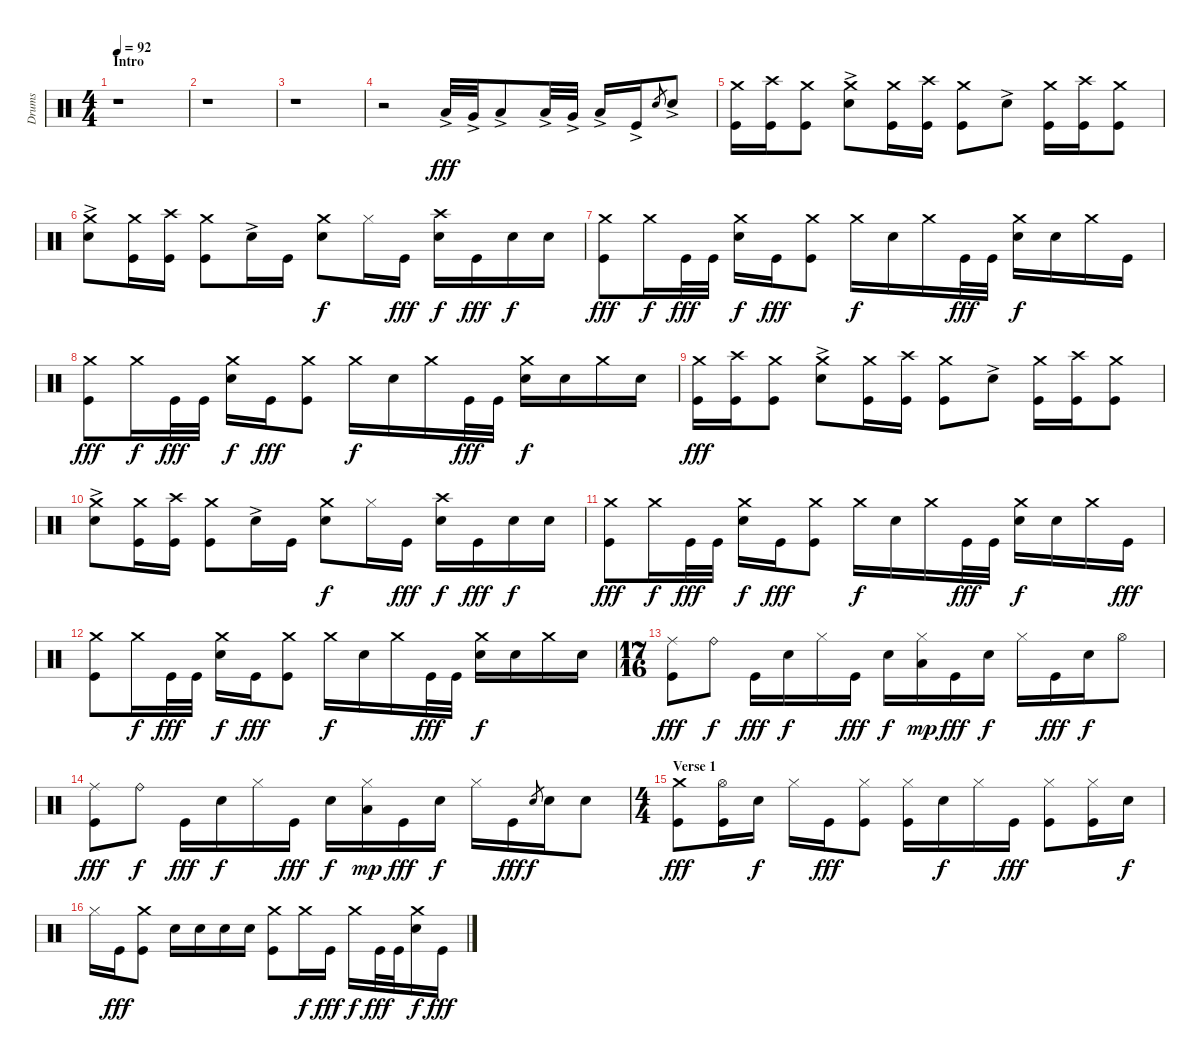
\track ("Drums" "Drums") {instrument percussion}
\staff {score}
\articulation defaults
\ts (4 4)
\section ("" "Intro")
\tempo 92
\clef neutral
\ks c
r.1{dy fff} |
r.1 |
r.1 |
r.2 "Low Tom (hit)"{ac}.32 "Very Low Tom (hit)"{ac}.32 "Low Floor Tom (hit)"{ac}.8 "Low Tom (hit)"{ac}.32 "Very Low Tom (hit)"{ac}.32 "Low Floor Tom (hit)"{ac}.16 "Kick (hit)"{ac}.16 "Snare (hit) 2".8{gr} "Snare (hit) 2"{ac}.8 |
("Crash medium (hit)" "Kick (hit)").16 ("Crash high (hit)" "Kick (hit)").16 ("Crash medium (hit)" "Kick (hit)").8 ("Crash medium (hit)"{ac} "Snare (hit) 2"{ac}).8 ("Crash medium (hit)" "Kick (hit)").16 ("Crash high (hit)" "Kick (hit)").16 ("Crash medium (hit)" "Kick (hit)").8 "Snare (hit) 2"{ac}.8 ("Crash medium (hit)" "Kick (hit)").16 ("Crash high (hit)" "Kick (hit)").16 ("Crash medium (hit)" "Kick (hit)").8 |
("Crash medium (hit)"{ac} "Snare (hit) 2"{ac}).8 ("Crash medium (hit)" "Kick (hit)").16 ("Crash high (hit)" "Kick (hit)").16 ("Crash medium (hit)" "Kick (hit)").8 "Snare (hit) 2"{ac}.16 "Kick (hit)".16 ("Crash medium (hit)" "Snare (hit) 2").8{dy f} "Hi-Hat (closed)".16 "Kick (hit)".16{dy fff} ("Crash high (hit)" "Snare (hit) 2").16{dy f} "Kick (hit)".16{dy fff} "Snare (hit) 2".16{dy f} "Snare (hit) 2".16 |
("Crash medium (hit)" "Kick (hit)").8{dy fff} "Crash medium (hit)".16{dy f} "Kick (hit)".32{dy fff} "Kick (hit)".32 ("Crash medium (hit)" "Snare (hit) 2").16{dy f} "Kick (hit)".16{dy fff} ("Crash medium (hit)" "Kick (hit)").8 "Crash medium (hit)".16{dy f} "Snare (hit) 2".16 "Crash medium (hit)".16 "Kick (hit)".32{dy fff} "Kick (hit)".32 ("Crash medium (hit)" "Snare (hit) 2").16{dy f} "Snare (hit) 2".16 "Crash medium (hit)".16 "Kick (hit)".16 |
("Crash medium (hit)" "Kick (hit)").8{dy fff} "Crash medium (hit)".16{dy f} "Kick (hit)".32{dy fff} "Kick (hit)".32 ("Crash medium (hit)" "Snare (hit) 2").16{dy f} "Kick (hit)".16{dy fff} ("Crash medium (hit)" "Kick (hit)").8 "Crash medium (hit)".16{dy f} "Snare (hit) 2".16 "Crash medium (hit)".16 "Kick (hit)".32{dy fff} "Kick (hit)".32 ("Crash medium (hit)" "Snare (hit) 2").16{dy f} "Snare (hit) 2".16 "Crash medium (hit)".16 "Snare (hit) 2".16 |
("Crash medium (hit)" "Kick (hit)").16{dy fff} ("Crash high (hit)" "Kick (hit)").16 ("Crash medium (hit)" "Kick (hit)").8 ("Crash medium (hit)"{ac} "Snare (hit) 2"{ac}).8 ("Crash medium (hit)" "Kick (hit)").16 ("Crash high (hit)" "Kick (hit)").16 ("Crash medium (hit)" "Kick (hit)").8 "Snare (hit) 2"{ac}.8 ("Crash medium (hit)" "Kick (hit)").16 ("Crash high (hit)" "Kick (hit)").16 ("Crash medium (hit)" "Kick (hit)").8 |
("Crash medium (hit)"{ac} "Snare (hit) 2"{ac}).8 ("Crash medium (hit)" "Kick (hit)").16 ("Crash high (hit)" "Kick (hit)").16 ("Crash medium (hit)" "Kick (hit)").8 "Snare (hit) 2"{ac}.16 "Kick (hit)".16 ("Crash medium (hit)" "Snare (hit) 2").8{dy f} "Hi-Hat (closed)".16 "Kick (hit)".16{dy fff} ("Crash high (hit)" "Snare (hit) 2").16{dy f} "Kick (hit)".16{dy fff} "Snare (hit) 2".16{dy f} "Snare (hit) 2".16 |
("Crash medium (hit)" "Kick (hit)").8{dy fff} "Crash medium (hit)".16{dy f} "Kick (hit)".32{dy fff} "Kick (hit)".32 ("Crash medium (hit)" "Snare (hit) 2").16{dy f} "Kick (hit)".16{dy fff} ("Crash medium (hit)" "Kick (hit)").8 "Crash medium (hit)".16{dy f} "Snare (hit) 2".16 "Crash medium (hit)".16 "Kick (hit)".32{dy fff} "Kick (hit)".32 ("Crash medium (hit)" "Snare (hit) 2").16{dy f} "Snare (hit) 2".16 "Crash medium (hit)".16 "Kick (hit)".16{dy fff} |
("Crash medium (hit)" "Kick (hit)").8 "Crash medium (hit)".16{dy f} "Kick (hit)".32{dy fff} "Kick (hit)".32 ("Crash medium (hit)" "Snare (hit) 2").16{dy f} "Kick (hit)".16{dy fff} ("Crash medium (hit)" "Kick (hit)").8 "Crash medium (hit)".16{dy f} "Snare (hit) 2".16 "Crash medium (hit)".16 "Kick (hit)".32{dy fff} "Kick (hit)".32 ("Crash medium (hit)" "Snare (hit) 2").16{dy f} "Snare (hit) 2".16 "Crash medium (hit)".16 "Snare (hit) 2".16 |
\ts (17 16)
("Ride (middle)" "Kick (hit)").8{dy fff} "Ride (bell)".8{dy f} "Kick (hit)".16{dy fff} "Snare (hit) 2".16{dy f} "Hi-Hat (closed)".16 "Kick (hit)".16{dy fff} "Snare (hit) 2".16{dy f} ("Hi-Hat (closed)" "Low Tom (hit)").16{dy mp} "Kick (hit)".16{dy fff} "Snare (hit) 2".16{dy f} "Hi-Hat (closed)".16 "Kick (hit)".16{dy fff} "Snare (hit) 2".16{dy f} "Hi-Hat (open)".8 |
("Ride (middle)" "Kick (hit)").8{dy fff} "Ride (bell)".8{dy f} "Kick (hit)".16{dy fff} "Snare (hit) 2".16{dy f} "Hi-Hat (closed)".16 "Kick (hit)".16{dy fff} "Snare (hit) 2".16{dy f} ("Hi-Hat (closed)" "Low Tom (hit)").16{dy mp} "Kick (hit)".16{dy fff} "Snare (hit) 2".16{dy f} "Hi-Hat (closed)".16 "Kick (hit)".16{dy fff} "Snare (hit) 2".8{gr dy f} "Snare (hit) 2".16 "Snare (hit) 2".8 |
\ts (4 4)
\section ("" "Verse 1")
("Crash medium (hit)" "Kick (hit)").8{dy fff} ("Hi-Hat (open)" "Kick (hit)").16 "Snare (hit) 2".16{dy f} "Hi-Hat (closed)".16 "Kick (hit)".16{dy fff} ("Hi-Hat (closed)" "Kick (hit)").8 ("Hi-Hat (closed)" "Kick (hit)").16 "Snare (hit) 2".16{dy f} "Hi-Hat (closed)".16 "Kick (hit)".16{dy fff} ("Hi-Hat (closed)" "Kick (hit)").8 ("Hi-Hat (closed)" "Kick (hit)").16 "Snare (hit) 2".16{dy f} |
"Hi-Hat (closed)".16 "Kick (hit)".16{dy fff} ("Crash medium (hit)" "Kick (hit)").8 "Snare (hit) 2".16 "Snare (hit) 2".16 "Snare (hit) 2".16 "Snare (hit) 2".16 ("Crash medium (hit)" "Kick (hit)").8 "Crash medium (hit)".16{dy f} "Kick (hit)".16{dy fff} "Crash medium (hit)".16{dy f} "Kick (hit)".32{dy fff} "Kick (hit)".32 ("Crash medium (hit)" "Snare (hit) 2").16{dy f} "Kick (hit)".16{dy fff}
